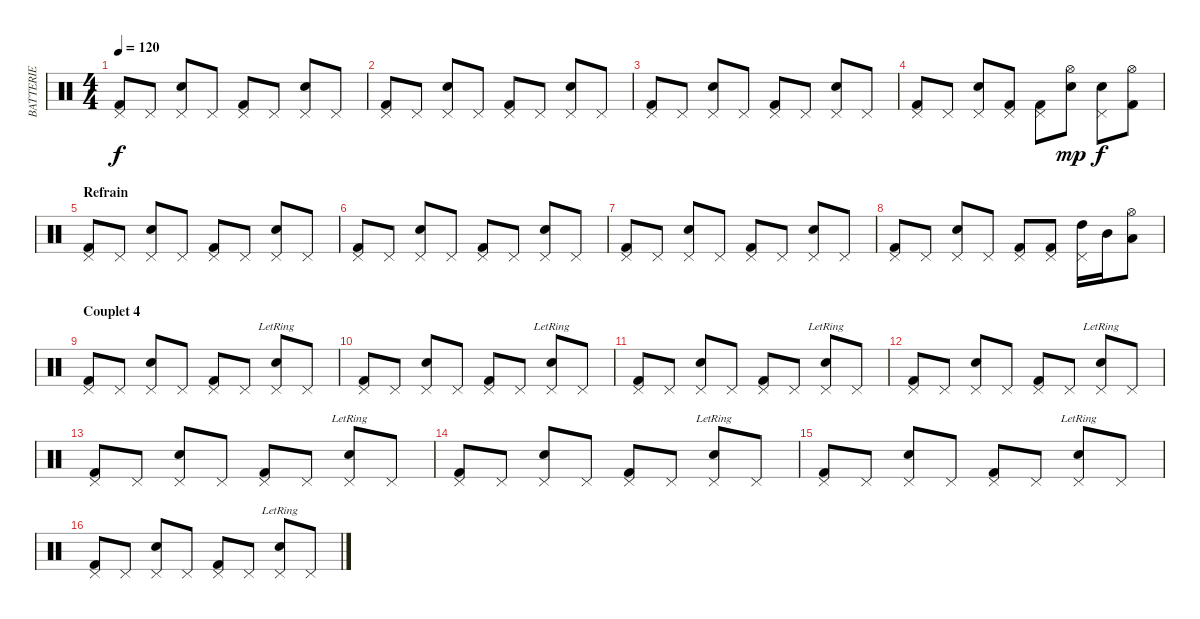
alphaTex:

\track ("BATTERIE" "BATTERIE") {instrument percussion}
\staff {score}
\articulation defaults
\ts (4 4)
\tempo 120
\clef neutral
\ks c
("Pedal Hi-Hat (hit)" "Kick (hit) 2").8{dy f} "Pedal Hi-Hat (hit)".8 ("Pedal Hi-Hat (hit)" "Snare (hit) 2").8 "Pedal Hi-Hat (hit)".8 ("Pedal Hi-Hat (hit)" "Kick (hit) 2").8 "Pedal Hi-Hat (hit)".8 ("Pedal Hi-Hat (hit)" "Snare (hit) 2").8 "Pedal Hi-Hat (hit)".8 |
("Pedal Hi-Hat (hit)" "Kick (hit) 2").8 "Pedal Hi-Hat (hit)".8 ("Pedal Hi-Hat (hit)" "Snare (hit) 2").8 "Pedal Hi-Hat (hit)".8 ("Pedal Hi-Hat (hit)" "Kick (hit) 2").8 "Pedal Hi-Hat (hit)".8 ("Pedal Hi-Hat (hit)" "Snare (hit) 2").8 "Pedal Hi-Hat (hit)".8 |
("Pedal Hi-Hat (hit)" "Kick (hit) 2").8 "Pedal Hi-Hat (hit)".8 ("Pedal Hi-Hat (hit)" "Snare (hit) 2").8 "Pedal Hi-Hat (hit)".8 ("Pedal Hi-Hat (hit)" "Kick (hit) 2").8 "Pedal Hi-Hat (hit)".8 ("Pedal Hi-Hat (hit)" "Snare (hit) 2").8 "Pedal Hi-Hat (hit)".8 |
("Pedal Hi-Hat (hit)" "Kick (hit) 2").8 "Pedal Hi-Hat (hit)".8 ("Pedal Hi-Hat (hit)" "Snare (hit) 2").8 ("Pedal Hi-Hat (hit)" "Kick (hit) 2").8 ("Pedal Hi-Hat (hit)" "Kick (hit) 2").8 ("Hi-Hat (open)" "Snare (hit) 2").8{dy mp} ("Pedal Hi-Hat (hit)" "Snare (hit) 2").8{dy f} ("Hi-Hat (open)" "Kick (hit) 2").8 |
\section ("" "Refrain")
("Pedal Hi-Hat (hit)" "Kick (hit) 2").8 "Pedal Hi-Hat (hit)".8 ("Pedal Hi-Hat (hit)" "Snare (hit) 2").8 "Pedal Hi-Hat (hit)".8 ("Pedal Hi-Hat (hit)" "Kick (hit) 2").8 "Pedal Hi-Hat (hit)".8 ("Pedal Hi-Hat (hit)" "Snare (hit) 2").8 "Pedal Hi-Hat (hit)".8 |
("Pedal Hi-Hat (hit)" "Kick (hit) 2").8 "Pedal Hi-Hat (hit)".8 ("Pedal Hi-Hat (hit)" "Snare (hit) 2").8 "Pedal Hi-Hat (hit)".8 ("Pedal Hi-Hat (hit)" "Kick (hit) 2").8 "Pedal Hi-Hat (hit)".8 ("Pedal Hi-Hat (hit)" "Snare (hit) 2").8 "Pedal Hi-Hat (hit)".8 |
("Pedal Hi-Hat (hit)" "Kick (hit) 2").8 "Pedal Hi-Hat (hit)".8 ("Pedal Hi-Hat (hit)" "Snare (hit) 2").8 "Pedal Hi-Hat (hit)".8 ("Pedal Hi-Hat (hit)" "Kick (hit) 2").8 "Pedal Hi-Hat (hit)".8 ("Pedal Hi-Hat (hit)" "Snare (hit) 2").8 "Pedal Hi-Hat (hit)".8 |
("Pedal Hi-Hat (hit)" "Kick (hit) 2").8 "Pedal Hi-Hat (hit)".8 ("Pedal Hi-Hat (hit)" "Snare (hit) 2").8 "Pedal Hi-Hat (hit)".8 ("Pedal Hi-Hat (hit)" "Kick (hit) 2").8 ("Pedal Hi-Hat (hit)" "Kick (hit) 2").8 ("Pedal Hi-Hat (hit)" "High Tom (hit)").16 "Mid Tom (hit)".16 ("Hi-Hat (open)" "Low Tom (hit)").8 |
\section ("" "Couplet 4")
("Pedal Hi-Hat (hit)" "Kick (hit) 2").8 "Pedal Hi-Hat (hit)".8 ("Pedal Hi-Hat (hit)" "Snare (hit) 2").8 "Pedal Hi-Hat (hit)".8 ("Pedal Hi-Hat (hit)" "Kick (hit) 2").8 "Pedal Hi-Hat (hit)".8 ("Pedal Hi-Hat (hit)" "Snare (hit) 2"{lr}).8 "Pedal Hi-Hat (hit)".8 |
("Pedal Hi-Hat (hit)" "Kick (hit) 2").8 "Pedal Hi-Hat (hit)".8 ("Pedal Hi-Hat (hit)" "Snare (hit) 2").8 "Pedal Hi-Hat (hit)".8 ("Pedal Hi-Hat (hit)" "Kick (hit) 2").8 "Pedal Hi-Hat (hit)".8 ("Pedal Hi-Hat (hit)" "Snare (hit) 2"{lr}).8 "Pedal Hi-Hat (hit)".8 |
("Pedal Hi-Hat (hit)" "Kick (hit) 2").8 "Pedal Hi-Hat (hit)".8 ("Pedal Hi-Hat (hit)" "Snare (hit) 2").8 "Pedal Hi-Hat (hit)".8 ("Pedal Hi-Hat (hit)" "Kick (hit) 2").8 "Pedal Hi-Hat (hit)".8 ("Pedal Hi-Hat (hit)" "Snare (hit) 2"{lr}).8 "Pedal Hi-Hat (hit)".8 |
("Pedal Hi-Hat (hit)" "Kick (hit) 2").8 "Pedal Hi-Hat (hit)".8 ("Pedal Hi-Hat (hit)" "Snare (hit) 2").8 "Pedal Hi-Hat (hit)".8 ("Pedal Hi-Hat (hit)" "Kick (hit) 2").8 "Pedal Hi-Hat (hit)".8 ("Pedal Hi-Hat (hit)" "Snare (hit) 2"{lr}).8 "Pedal Hi-Hat (hit)".8 |
("Pedal Hi-Hat (hit)" "Kick (hit) 2").8 "Pedal Hi-Hat (hit)".8 ("Pedal Hi-Hat (hit)" "Snare (hit) 2").8 "Pedal Hi-Hat (hit)".8 ("Pedal Hi-Hat (hit)" "Kick (hit) 2").8 "Pedal Hi-Hat (hit)".8 ("Pedal Hi-Hat (hit)" "Snare (hit) 2"{lr}).8 "Pedal Hi-Hat (hit)".8 |
("Pedal Hi-Hat (hit)" "Kick (hit) 2").8 "Pedal Hi-Hat (hit)".8 ("Pedal Hi-Hat (hit)" "Snare (hit) 2").8 "Pedal Hi-Hat (hit)".8 ("Pedal Hi-Hat (hit)" "Kick (hit) 2").8 "Pedal Hi-Hat (hit)".8 ("Pedal Hi-Hat (hit)" "Snare (hit) 2"{lr}).8 "Pedal Hi-Hat (hit)".8 |
("Pedal Hi-Hat (hit)" "Kick (hit) 2").8 "Pedal Hi-Hat (hit)".8 ("Pedal Hi-Hat (hit)" "Snare (hit) 2").8 "Pedal Hi-Hat (hit)".8 ("Pedal Hi-Hat (hit)" "Kick (hit) 2").8 "Pedal Hi-Hat (hit)".8 ("Pedal Hi-Hat (hit)" "Snare (hit) 2"{lr}).8 "Pedal Hi-Hat (hit)".8 |
("Pedal Hi-Hat (hit)" "Kick (hit) 2").8 "Pedal Hi-Hat (hit)".8 ("Pedal Hi-Hat (hit)" "Snare (hit) 2").8 "Pedal Hi-Hat (hit)".8 ("Pedal Hi-Hat (hit)" "Kick (hit) 2").8 "Pedal Hi-Hat (hit)".8 ("Pedal Hi-Hat (hit)" "Snare (hit) 2"{lr}).8 "Pedal Hi-Hat (hit)".8
